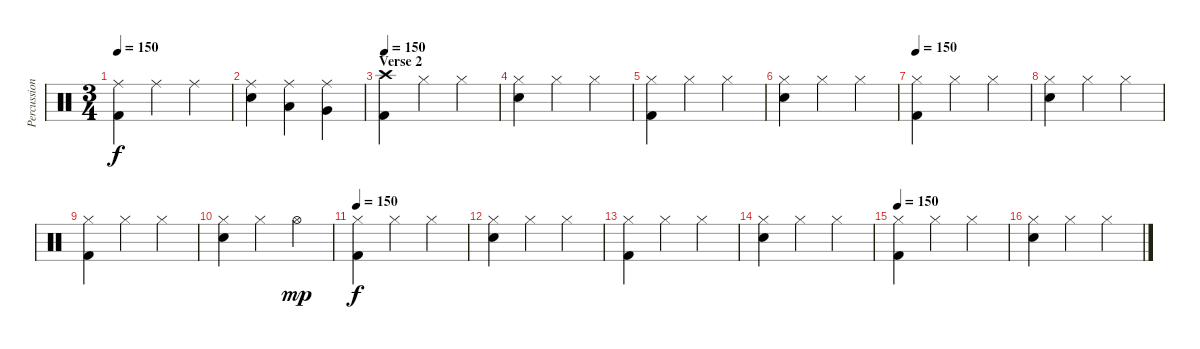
\track ("Percussion" "Percussion") {instrument percussion}
\staff {score}
\articulation defaults
\ts (3 4)
\tempo 150
\clef neutral
\ks c
("Ride (middle)" "Kick (hit) 2").4{dy f} "Ride (middle)".4 "Ride (middle)".4 |
("Ride (middle)" "Electric Snare (hit)").4 ("Ride (middle)" "Low Tom (hit)").4 ("Ride (middle)" "Very Low Tom (hit)").4 |
\section ("" "Verse 2")
\tempo 150
("Crash high (hit)" "Kick (hit) 2").4 "Hi-Hat (closed)".4 "Hi-Hat (closed)".4 |
("Hi-Hat (closed)" "Electric Snare (hit)").4 "Hi-Hat (closed)".4 "Hi-Hat (closed)".4 |
("Hi-Hat (closed)" "Kick (hit) 2").4 "Hi-Hat (closed)".4 "Hi-Hat (closed)".4 |
("Hi-Hat (closed)" "Electric Snare (hit)").4 "Hi-Hat (closed)".4 "Hi-Hat (closed)".4 |
\tempo 150
("Hi-Hat (closed)" "Kick (hit) 2").4 "Hi-Hat (closed)".4 "Hi-Hat (closed)".4 |
("Hi-Hat (closed)" "Electric Snare (hit)").4 "Hi-Hat (closed)".4 "Hi-Hat (closed)".4 |
("Hi-Hat (closed)" "Kick (hit) 2").4 "Hi-Hat (closed)".4 "Hi-Hat (closed)".4 |
("Hi-Hat (closed)" "Electric Snare (hit)").4 "Hi-Hat (closed)".4 "Hi-Hat (open)".4{dy mp} |
\tempo 150
("Hi-Hat (closed)" "Kick (hit) 2").4{dy f} "Hi-Hat (closed)".4 "Hi-Hat (closed)".4 |
("Hi-Hat (closed)" "Electric Snare (hit)").4 "Hi-Hat (closed)".4 "Hi-Hat (closed)".4 |
("Hi-Hat (closed)" "Kick (hit) 2").4 "Hi-Hat (closed)".4 "Hi-Hat (closed)".4 |
("Hi-Hat (closed)" "Electric Snare (hit)").4 "Hi-Hat (closed)".4 "Hi-Hat (closed)".4 |
\tempo 150
("Hi-Hat (closed)" "Kick (hit) 2").4 "Hi-Hat (closed)".4 "Hi-Hat (closed)".4 |
("Hi-Hat (closed)" "Electric Snare (hit)").4 "Hi-Hat (closed)".4 "Hi-Hat (closed)".4
